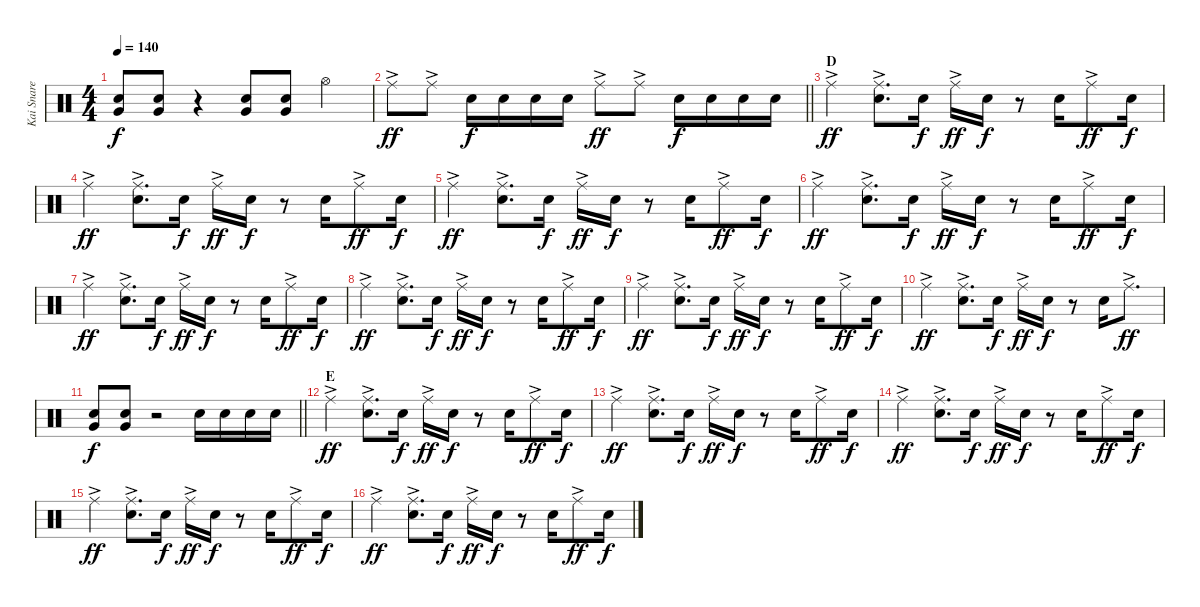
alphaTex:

\track ("Kai Snare" "Kai Snare") {instrument percussion}
\staff {score}
\articulation defaults
\ts (4 4)
\tempo 140
\clef neutral
\ks c
("Very Low Tom (hit)" "Snare (hit) 2").8{dy f} ("Very Low Tom (hit)" "Snare (hit) 2").8 r.4 ("Very Low Tom (hit)" "Snare (hit) 2").8 ("Very Low Tom (hit)" "Snare (hit) 2").8 "Hi-Hat (open)".4 |
\barLineRight lightlight "Ride (middle)"{ac}.8{dy ff} "Ride (middle)"{ac}.8 "Snare (hit) 2".16{dy f} "Snare (hit) 2".16 "Snare (hit) 2".16 "Snare (hit) 2".16 "Ride (middle)"{ac}.8{dy ff} "Ride (middle)"{ac}.8 "Snare (hit) 2".16{dy f} "Snare (hit) 2".16 "Snare (hit) 2".16 "Snare (hit) 2".16
|
\section ("" "D")
"Ride (middle)"{ac}.4{dy ff} ("Ride (middle)"{ac} "Snare (hit) 2").8{d} "Snare (hit) 2".16{dy f} "Ride (middle)"{ac}.16{dy ff} "Snare (hit) 2".16{dy f} r.8 "Snare (hit) 2".16 "Ride (middle)"{ac}.8{dy ff} "Snare (hit) 2".16{dy f} |
"Ride (middle)"{ac}.4{dy ff} ("Ride (middle)"{ac} "Snare (hit) 2").8{d} "Snare (hit) 2".16{dy f} "Ride (middle)"{ac}.16{dy ff} "Snare (hit) 2".16{dy f} r.8 "Snare (hit) 2".16 "Ride (middle)"{ac}.8{dy ff} "Snare (hit) 2".16{dy f} |
"Ride (middle)"{ac}.4{dy ff} ("Ride (middle)"{ac} "Snare (hit) 2").8{d} "Snare (hit) 2".16{dy f} "Ride (middle)"{ac}.16{dy ff} "Snare (hit) 2".16{dy f} r.8 "Snare (hit) 2".16 "Ride (middle)"{ac}.8{dy ff} "Snare (hit) 2".16{dy f} |
"Ride (middle)"{ac}.4{dy ff} ("Ride (middle)"{ac} "Snare (hit) 2").8{d} "Snare (hit) 2".16{dy f} "Ride (middle)"{ac}.16{dy ff} "Snare (hit) 2".16{dy f} r.8 "Snare (hit) 2".16 "Ride (middle)"{ac}.8{dy ff} "Snare (hit) 2".16{dy f} |
"Ride (middle)"{ac}.4{dy ff} ("Ride (middle)"{ac} "Snare (hit) 2").8{d} "Snare (hit) 2".16{dy f} "Ride (middle)"{ac}.16{dy ff} "Snare (hit) 2".16{dy f} r.8 "Snare (hit) 2".16 "Ride (middle)"{ac}.8{dy ff} "Snare (hit) 2".16{dy f} |
"Ride (middle)"{ac}.4{dy ff} ("Ride (middle)"{ac} "Snare (hit) 2").8{d} "Snare (hit) 2".16{dy f} "Ride (middle)"{ac}.16{dy ff} "Snare (hit) 2".16{dy f} r.8 "Snare (hit) 2".16 "Ride (middle)"{ac}.8{dy ff} "Snare (hit) 2".16{dy f} |
"Ride (middle)"{ac}.4{dy ff} ("Ride (middle)"{ac} "Snare (hit) 2").8{d} "Snare (hit) 2".16{dy f} "Ride (middle)"{ac}.16{dy ff} "Snare (hit) 2".16{dy f} r.8 "Snare (hit) 2".16 "Ride (middle)"{ac}.8{dy ff} "Snare (hit) 2".16{dy f} |
"Ride (middle)"{ac}.4{dy ff} ("Ride (middle)"{ac} "Snare (hit) 2").8{d} "Snare (hit) 2".16{dy f} "Ride (middle)"{ac}.16{dy ff} "Snare (hit) 2".16{dy f} r.8 "Snare (hit) 2".16 "Ride (middle)"{ac}.8{d dy ff} |
\barLineRight lightlight
("Very Low Tom (hit)" "Snare (hit) 2").8{dy f} ("Very Low Tom (hit)" "Snare (hit) 2").8 r.2 "Snare (hit) 2".16 "Snare (hit) 2".16 "Snare (hit) 2".16 "Snare (hit) 2".16 |
\section ("" "E")
"Ride (middle)"{ac}.4{dy ff} ("Ride (middle)"{ac} "Snare (hit) 2").8{d} "Snare (hit) 2".16{dy f} "Ride (middle)"{ac}.16{dy ff} "Snare (hit) 2".16{dy f} r.8 "Snare (hit) 2".16 "Ride (middle)"{ac}.8{dy ff} "Snare (hit) 2".16{dy f} |
"Ride (middle)"{ac}.4{dy ff} ("Ride (middle)"{ac} "Snare (hit) 2").8{d} "Snare (hit) 2".16{dy f} "Ride (middle)"{ac}.16{dy ff} "Snare (hit) 2".16{dy f} r.8 "Snare (hit) 2".16 "Ride (middle)"{ac}.8{dy ff} "Snare (hit) 2".16{dy f} |
"Ride (middle)"{ac}.4{dy ff} ("Ride (middle)"{ac} "Snare (hit) 2").8{d} "Snare (hit) 2".16{dy f} "Ride (middle)"{ac}.16{dy ff} "Snare (hit) 2".16{dy f} r.8 "Snare (hit) 2".16 "Ride (middle)"{ac}.8{dy ff} "Snare (hit) 2".16{dy f} |
"Ride (middle)"{ac}.4{dy ff} ("Ride (middle)"{ac} "Snare (hit) 2").8{d} "Snare (hit) 2".16{dy f} "Ride (middle)"{ac}.16{dy ff} "Snare (hit) 2".16{dy f} r.8 "Snare (hit) 2".16 "Ride (middle)"{ac}.8{dy ff} "Snare (hit) 2".16{dy f} |
"Ride (middle)"{ac}.4{dy ff} ("Ride (middle)"{ac} "Snare (hit) 2").8{d} "Snare (hit) 2".16{dy f} "Ride (middle)"{ac}.16{dy ff} "Snare (hit) 2".16{dy f} r.8 "Snare (hit) 2".16 "Ride (middle)"{ac}.8{dy ff} "Snare (hit) 2".16{dy f}
